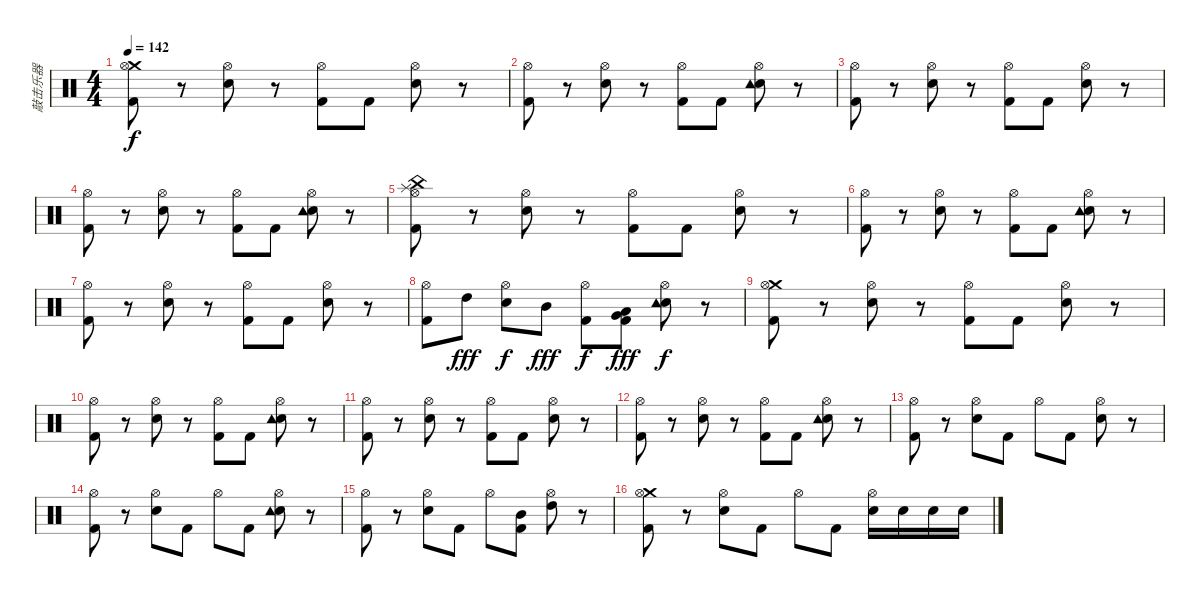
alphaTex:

\track ("敲击乐器" "敲击乐器") {instrument percussion}
\staff {score}
\articulation defaults
\ts (4 4)
\tempo 142
\clef neutral
\ks c
("Crash medium (hit)" "Hi-Hat (open)" "Kick (hit) 2").8{dy f} r.8 ("Snare (hit) 2" "Hi-Hat (open)").8 r.8 ("Hi-Hat (open)" "Kick (hit) 2").8 "Kick (hit) 2".8 ("Snare (hit) 2" "Hi-Hat (open)").8 r.8 |
("Hi-Hat (open)" "Kick (hit) 2").8 r.8 ("Snare (hit) 2" "Hi-Hat (open)").8 r.8 ("Hi-Hat (open)" "Kick (hit) 2").8 "Kick (hit) 2".8 ("Snare (hit) 2" "Tambourine (hit)" "Hi-Hat (open)").8 r.8 |
("Hi-Hat (open)" "Kick (hit) 2").8 r.8 ("Snare (hit) 2" "Hi-Hat (open)").8 r.8 ("Hi-Hat (open)" "Kick (hit) 2").8 "Kick (hit) 2".8 ("Snare (hit) 2" "Hi-Hat (open)").8 r.8 |
("Hi-Hat (open)" "Kick (hit) 2").8 r.8 ("Snare (hit) 2" "Hi-Hat (open)").8 r.8 ("Hi-Hat (open)" "Kick (hit) 2").8 "Kick (hit) 2".8 ("Snare (hit) 2" "Tambourine (hit)" "Hi-Hat (open)").8 r.8 |
("China (hit)" "Splash (hit)" "Hi-Hat (open)" "Kick (hit) 2").8 r.8 ("Snare (hit) 2" "Hi-Hat (open)").8 r.8 ("Hi-Hat (open)" "Kick (hit) 2").8 "Kick (hit) 2".8 ("Snare (hit) 2" "Hi-Hat (open)").8 r.8 |
("Hi-Hat (open)" "Kick (hit) 2").8 r.8 ("Snare (hit) 2" "Hi-Hat (open)").8 r.8 ("Hi-Hat (open)" "Kick (hit) 2").8 "Kick (hit) 2".8 ("Snare (hit) 2" "Tambourine (hit)" "Hi-Hat (open)").8 r.8 |
("Hi-Hat (open)" "Kick (hit) 2").8 r.8 ("Snare (hit) 2" "Hi-Hat (open)").8 r.8 ("Hi-Hat (open)" "Kick (hit) 2").8 "Kick (hit) 2".8 ("Snare (hit) 2" "Hi-Hat (open)").8 r.8 |
("Hi-Hat (open)" "Kick (hit) 2").8 "High Tom (hit)".8{dy fff} ("Snare (hit) 2" "Hi-Hat (open)").8{dy f} "Mid Tom (hit)".8{dy fff} ("Hi-Hat (open)" "Kick (hit) 2").8{dy f} ("Very Low Tom (hit)" "Low Floor Tom (hit)" "Kick (hit) 2").8{dy fff} ("Snare (hit) 2" "Tambourine (hit)" "Hi-Hat (open)").8{dy f} r.8 |
("Crash medium (hit)" "Hi-Hat (open)" "Kick (hit) 2").8 r.8 ("Snare (hit) 2" "Hi-Hat (open)").8 r.8 ("Hi-Hat (open)" "Kick (hit) 2").8 "Kick (hit) 2".8 ("Snare (hit) 2" "Hi-Hat (open)").8 r.8 |
("Hi-Hat (open)" "Kick (hit) 2").8 r.8 ("Snare (hit) 2" "Hi-Hat (open)").8 r.8 ("Hi-Hat (open)" "Kick (hit) 2").8 "Kick (hit) 2".8 ("Snare (hit) 2" "Tambourine (hit)" "Hi-Hat (open)").8 r.8 |
("Hi-Hat (open)" "Kick (hit) 2").8 r.8 ("Snare (hit) 2" "Hi-Hat (open)").8 r.8 ("Hi-Hat (open)" "Kick (hit) 2").8 "Kick (hit) 2".8 ("Snare (hit) 2" "Hi-Hat (open)").8 r.8 |
("Hi-Hat (open)" "Kick (hit) 2").8 r.8 ("Snare (hit) 2" "Hi-Hat (open)").8 r.8 ("Hi-Hat (open)" "Kick (hit) 2").8 "Kick (hit) 2".8 ("Snare (hit) 2" "Tambourine (hit)" "Hi-Hat (open)").8 r.8 |
("Hi-Hat (open)" "Kick (hit) 2").8 r.8 ("Snare (hit) 2" "Hi-Hat (open)").8 "Kick (hit) 2".8 "Hi-Hat (open)".8 "Kick (hit) 2".8 ("Snare (hit) 2" "Hi-Hat (open)").8 r.8 |
("Hi-Hat (open)" "Kick (hit) 2").8 r.8 ("Snare (hit) 2" "Hi-Hat (open)").8 "Kick (hit) 2".8 "Hi-Hat (open)".8 "Kick (hit) 2".8 ("Snare (hit) 2" "Tambourine (hit)" "Hi-Hat (open)").8 r.8 |
("Hi-Hat (open)" "Kick (hit) 2").8 r.8 ("Snare (hit) 2" "Hi-Hat (open)").8 "Kick (hit) 2".8 "Hi-Hat (open)".8 ("Mid Tom (hit)" "Kick (hit) 2").8 ("High Tom (hit)" "Hi-Hat (open)").8 r.8 |
("Crash medium (hit)" "Hi-Hat (open)" "Kick (hit) 2").8 r.8 ("Snare (hit) 2" "Hi-Hat (open)").8 "Kick (hit) 2".8 "Hi-Hat (open)".8 "Kick (hit) 2".8 ("Snare (hit) 2" "Hi-Hat (open)").16 "Snare (hit) 2".16 "Snare (hit) 2".16 "Snare (hit) 2".16
